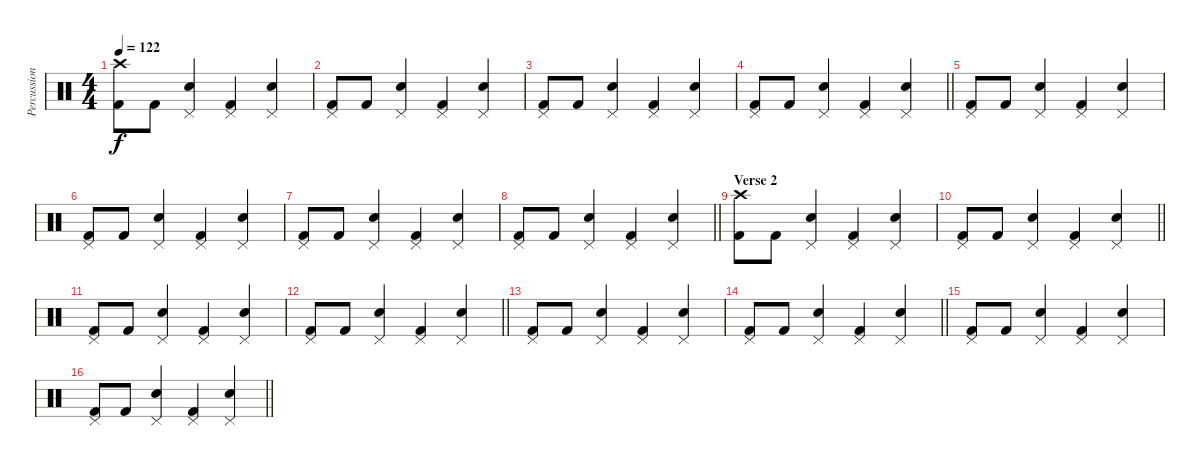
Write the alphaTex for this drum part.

\track ("Percussion" "Percussion") {instrument percussion}
\staff {score}
\articulation defaults
\ts (4 4)
\tempo 122
\clef neutral
\ks c
("Crash high (hit)" "Kick (hit) 2").8{dy f} "Kick (hit) 2".8 ("Pedal Hi-Hat (hit)" "Electric Snare (hit)").4 ("Pedal Hi-Hat (hit)" "Kick (hit) 2").4 ("Pedal Hi-Hat (hit)" "Electric Snare (hit)").4 |
("Pedal Hi-Hat (hit)" "Kick (hit) 2").8 "Kick (hit) 2".8 ("Pedal Hi-Hat (hit)" "Electric Snare (hit)").4 ("Pedal Hi-Hat (hit)" "Kick (hit) 2").4 ("Pedal Hi-Hat (hit)" "Electric Snare (hit)").4 |
("Pedal Hi-Hat (hit)" "Kick (hit) 2").8 "Kick (hit) 2".8 ("Pedal Hi-Hat (hit)" "Electric Snare (hit)").4 ("Pedal Hi-Hat (hit)" "Kick (hit) 2").4 ("Pedal Hi-Hat (hit)" "Electric Snare (hit)").4 |
\barLineRight lightlight
("Pedal Hi-Hat (hit)" "Kick (hit) 2").8 "Kick (hit) 2".8 ("Pedal Hi-Hat (hit)" "Electric Snare (hit)").4 ("Pedal Hi-Hat (hit)" "Kick (hit) 2").4 ("Pedal Hi-Hat (hit)" "Electric Snare (hit)").4 |
("Pedal Hi-Hat (hit)" "Kick (hit) 2").8 "Kick (hit) 2".8 ("Pedal Hi-Hat (hit)" "Electric Snare (hit)").4 ("Pedal Hi-Hat (hit)" "Kick (hit) 2").4 ("Pedal Hi-Hat (hit)" "Electric Snare (hit)").4 |
("Pedal Hi-Hat (hit)" "Kick (hit) 2").8 "Kick (hit) 2".8 ("Pedal Hi-Hat (hit)" "Electric Snare (hit)").4 ("Pedal Hi-Hat (hit)" "Kick (hit) 2").4 ("Pedal Hi-Hat (hit)" "Electric Snare (hit)").4 |
("Pedal Hi-Hat (hit)" "Kick (hit) 2").8 "Kick (hit) 2".8 ("Pedal Hi-Hat (hit)" "Electric Snare (hit)").4 ("Pedal Hi-Hat (hit)" "Kick (hit) 2").4 ("Pedal Hi-Hat (hit)" "Electric Snare (hit)").4 |
\barLineRight lightlight
("Pedal Hi-Hat (hit)" "Kick (hit) 2").8 "Kick (hit) 2".8 ("Pedal Hi-Hat (hit)" "Electric Snare (hit)").4 ("Pedal Hi-Hat (hit)" "Kick (hit) 2").4 ("Pedal Hi-Hat (hit)" "Electric Snare (hit)").4 |
\section ("" "Verse 2")
("Crash high (hit)" "Kick (hit) 2").8 "Kick (hit) 2".8 ("Pedal Hi-Hat (hit)" "Electric Snare (hit)").4 ("Pedal Hi-Hat (hit)" "Kick (hit) 2").4 ("Pedal Hi-Hat (hit)" "Electric Snare (hit)").4 |
\barLineRight lightlight
("Pedal Hi-Hat (hit)" "Kick (hit) 2").8 "Kick (hit) 2".8 ("Pedal Hi-Hat (hit)" "Electric Snare (hit)").4 ("Pedal Hi-Hat (hit)" "Kick (hit) 2").4 ("Pedal Hi-Hat (hit)" "Electric Snare (hit)").4 |
("Pedal Hi-Hat (hit)" "Kick (hit) 2").8 "Kick (hit) 2".8 ("Pedal Hi-Hat (hit)" "Electric Snare (hit)").4 ("Pedal Hi-Hat (hit)" "Kick (hit) 2").4 ("Pedal Hi-Hat (hit)" "Electric Snare (hit)").4 |
\barLineRight lightlight
("Pedal Hi-Hat (hit)" "Kick (hit) 2").8 "Kick (hit) 2".8 ("Pedal Hi-Hat (hit)" "Electric Snare (hit)").4 ("Pedal Hi-Hat (hit)" "Kick (hit) 2").4 ("Pedal Hi-Hat (hit)" "Electric Snare (hit)").4 |
("Pedal Hi-Hat (hit)" "Kick (hit) 2").8 "Kick (hit) 2".8 ("Pedal Hi-Hat (hit)" "Electric Snare (hit)").4 ("Pedal Hi-Hat (hit)" "Kick (hit) 2").4 ("Pedal Hi-Hat (hit)" "Electric Snare (hit)").4 |
\barLineRight lightlight
("Pedal Hi-Hat (hit)" "Kick (hit) 2").8 "Kick (hit) 2".8 ("Pedal Hi-Hat (hit)" "Electric Snare (hit)").4 ("Pedal Hi-Hat (hit)" "Kick (hit) 2").4 ("Pedal Hi-Hat (hit)" "Electric Snare (hit)").4 |
("Pedal Hi-Hat (hit)" "Kick (hit) 2").8 "Kick (hit) 2".8 ("Pedal Hi-Hat (hit)" "Electric Snare (hit)").4 ("Pedal Hi-Hat (hit)" "Kick (hit) 2").4 ("Pedal Hi-Hat (hit)" "Electric Snare (hit)").4 |
\barLineRight lightlight
("Pedal Hi-Hat (hit)" "Kick (hit) 2").8 "Kick (hit) 2".8 ("Pedal Hi-Hat (hit)" "Electric Snare (hit)").4 ("Pedal Hi-Hat (hit)" "Kick (hit) 2").4 ("Pedal Hi-Hat (hit)" "Electric Snare (hit)").4
